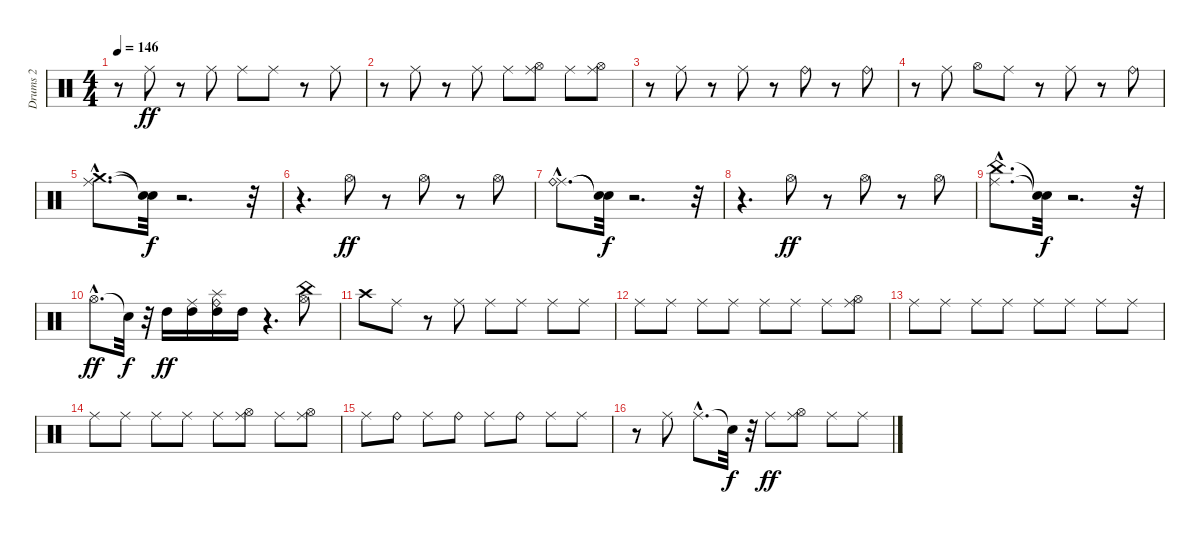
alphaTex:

\track ("Drums 2" "Drums 2") {instrument percussion}
\staff {score}
\articulation defaults
\ts (4 4)
\tempo 146
\clef neutral
\ks c
r.8{dy ff} "Ride (middle)".8 r.8 "Ride (middle)".8 "Ride (middle)".8 "Ride (middle)".8 r.8 "Ride (middle)".8 |
r.8 "Ride (middle)".8 r.8 "Ride (middle)".8 "Ride (middle)".8 ("Hi-Hat (open)" "Ride (middle)").8 "Ride (middle)".8 ("Hi-Hat (open)" "Ride (middle)").8 |
r.8 "Ride (middle)".8 r.8 "Ride (middle)".8 r.8 "Ride (bell)".8 r.8 "Ride (bell)".8 |
r.8 "Ride (middle)".8 "Hi-Hat (open)".8 "Ride (middle)".8 r.8 "Ride (middle)".8 r.8 "Ride (bell)".8 |
("Ride (middle)"{hac} "Crash medium (hit)"{hac}).8{d} ("Snare (hit)"{t} "Snare (hit)"{t}).32{dy f} r.2{d} r.32 |
r.4{d} "Hi-Hat (open)".8{dy ff} r.8 "Hi-Hat (open)".8 r.8 "Hi-Hat (open)".8 |
("Ride (middle)"{hac} "Ride (bell)"{hac}).8{d} ("Snare (hit)"{t} "Snare (hit)"{t}).32{dy f} r.2{d} r.32 |
r.4{d} "Hi-Hat (open)".8{dy ff} r.8 "Hi-Hat (open)".8 r.8 "Hi-Hat (open)".8 |
("Ride (middle)"{hac} "China (hit)"{hac}).8{d} ("Snare (hit)"{t} "Snare (hit)"{t}).32{dy f} r.2{d} r.32 |
"Hi-Hat (open)"{hac}.8{d dy ff} "Snare (hit)"{t}.32{dy f} r.32 "High Tom (hit)".16{dy ff} ("High Tom (hit)" "Ride (middle)").16 ("High Tom (hit)" "Ride (bell)" "Splash (hit)").16 "High Tom (hit)".16 r.4{d} ("Hi-Hat (open)" "China (hit)").8 |
"Crash high (hit)".8 "Ride (middle)".8 r.8 "Ride (middle)".8 "Ride (middle)".8 "Ride (middle)".8 "Ride (middle)".8 "Ride (middle)".8 |
"Ride (middle)".8 "Ride (middle)".8 "Ride (middle)".8 "Ride (middle)".8 "Ride (middle)".8 "Ride (middle)".8 "Ride (middle)".8 ("Hi-Hat (open)" "Ride (middle)").8 |
"Ride (middle)".8 "Ride (middle)".8 "Ride (middle)".8 "Ride (middle)".8 "Ride (middle)".8 "Ride (middle)".8 "Ride (middle)".8 "Ride (middle)".8 |
"Ride (middle)".8 "Ride (middle)".8 "Ride (middle)".8 "Ride (middle)".8 "Ride (middle)".8 ("Hi-Hat (open)" "Ride (middle)").8 "Ride (middle)".8 ("Hi-Hat (open)" "Ride (middle)").8 |
"Ride (middle)".8 "Ride (bell)".8 "Ride (middle)".8 "Ride (bell)".8 "Ride (middle)".8 "Ride (bell)".8 "Ride (middle)".8 "Ride (middle)".8 |
r.8 "Ride (middle)".8 "Ride (middle)"{hac}.8{d} "Snare (hit)"{t}.32{dy f} r.32 "Ride (middle)".8{dy ff} ("Hi-Hat (open)" "Ride (middle)").8 "Ride (middle)".8 "Ride (middle)".8
